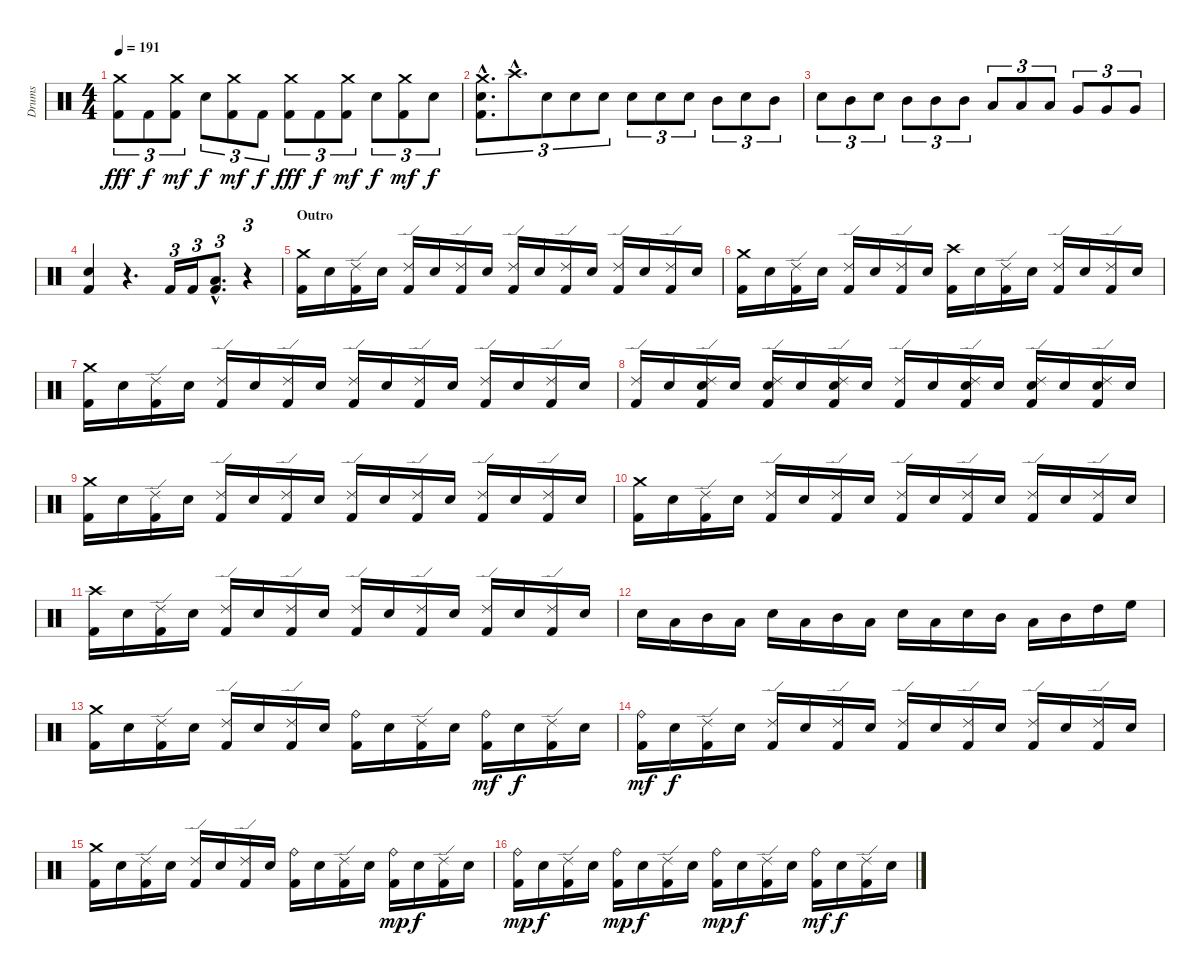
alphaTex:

\track ("Drums" "Drums") {instrument percussion}
\staff {score}
\articulation defaults
\ts (4 4)
\tempo 191
\clef neutral
\ks c
("Crash medium (hit)" "Kick (hit) 2").8{tu (3 2) dy fff} "Kick (hit) 2".8{tu (3 2) dy f} ("Crash medium (hit)" "Kick (hit) 2").8{tu (3 2) dy mf} "Electric Snare (hit)".8{tu (3 2) dy f} ("Crash medium (hit)" "Kick (hit) 2").8{tu (3 2) dy mf} "Kick (hit) 2".8{tu (3 2) dy f} ("Crash medium (hit)" "Kick (hit) 2").8{tu (3 2) dy fff} "Kick (hit) 2".8{tu (3 2) dy f} ("Crash medium (hit)" "Kick (hit) 2").8{tu (3 2) dy mf} "Electric Snare (hit)".8{tu (3 2) dy f} ("Crash medium (hit)" "Kick (hit) 2").8{tu (3 2) dy mf} "Electric Snare (hit)".8{tu (3 2) dy f} |
("Crash medium (hit)"{hac} "Electric Snare (hit)"{hac} "Kick (hit) 2"{hac}).8{d tu (3 2)} "Crash high (hit)"{hac}.8{d tu (3 2)} "Electric Snare (hit)".8{tu (3 2)} "Electric Snare (hit)".8{tu (3 2)} "Electric Snare (hit)".8{tu (3 2)} "Electric Snare (hit)".8{tu (3 2)} "Electric Snare (hit)".8{tu (3 2)} "Electric Snare (hit)".8{tu (3 2)} "Mid Tom (hit)".8{tu (3 2)} "Electric Snare (hit)".8{tu (3 2)} "Mid Tom (hit)".8{tu (3 2)} |
"Electric Snare (hit)".8{tu (3 2)} "Mid Tom (hit)".8{tu (3 2)} "Electric Snare (hit)".8{tu (3 2)} "Mid Tom (hit)".8{tu (3 2)} "Mid Tom (hit)".8{tu (3 2)} "Mid Tom (hit)".8{tu (3 2)} "Low Tom (hit)".8{tu (3 2)} "Low Tom (hit)".8{tu (3 2)} "Low Tom (hit)".8{tu (3 2)} "Very Low Tom (hit)".8{tu (3 2)} "Very Low Tom (hit)".8{tu (3 2)} "Very Low Tom (hit)".8{tu (3 2)} |
("Electric Snare (hit)" "Kick (hit) 2").4 r.4{d} "Kick (hit) 2".16{tu (3 2)} "Kick (hit) 2".16{tu (3 2)} ("Low Tom (hit)"{hac} "Kick (hit) 2"{hac}).8{d tu (3 2) bd 480} r.4{tu (3 2)} |
\section ("" "Outro")
("Crash medium (hit)" "Kick (hit) 2").16 "Electric Snare (hit)".16 ("Ride (edge) 2" "Kick (hit) 2").16 "Electric Snare (hit)".16 ("Ride (edge) 2" "Kick (hit) 2").16 "Electric Snare (hit)".16 ("Ride (edge) 2" "Kick (hit) 2").16 "Electric Snare (hit)".16 ("Ride (edge) 2" "Kick (hit) 2").16 "Electric Snare (hit)".16 ("Ride (edge) 2" "Kick (hit) 2").16 "Electric Snare (hit)".16 ("Ride (edge) 2" "Kick (hit) 2").16 "Electric Snare (hit)".16 ("Ride (edge) 2" "Kick (hit) 2").16 "Electric Snare (hit)".16 |
("Crash medium (hit)" "Kick (hit) 2").16 "Electric Snare (hit)".16 ("Ride (edge) 2" "Kick (hit) 2").16 "Electric Snare (hit)".16 ("Ride (edge) 2" "Kick (hit) 2").16 "Electric Snare (hit)".16 ("Ride (edge) 2" "Kick (hit) 2").16 "Electric Snare (hit)".16 ("Crash high (hit)" "Kick (hit) 2").16 "Electric Snare (hit)".16 ("Ride (edge) 2" "Kick (hit) 2").16 "Electric Snare (hit)".16 ("Ride (edge) 2" "Kick (hit) 2").16 "Electric Snare (hit)".16 ("Ride (edge) 2" "Kick (hit) 2").16 "Electric Snare (hit)".16 |
("Crash medium (hit)" "Kick (hit) 2").16 "Electric Snare (hit)".16 ("Ride (edge) 2" "Kick (hit) 2").16 "Electric Snare (hit)".16 ("Ride (edge) 2" "Kick (hit) 2").16 "Electric Snare (hit)".16 ("Ride (edge) 2" "Kick (hit) 2").16 "Electric Snare (hit)".16 ("Ride (edge) 2" "Kick (hit) 2").16 "Electric Snare (hit)".16 ("Ride (edge) 2" "Kick (hit) 2").16 "Electric Snare (hit)".16 ("Ride (edge) 2" "Kick (hit) 2").16 "Electric Snare (hit)".16 ("Ride (edge) 2" "Kick (hit) 2").16 "Electric Snare (hit)".16 |
("Ride (edge) 2" "Kick (hit) 2").16 "Electric Snare (hit)".16 ("Ride (edge) 2" "Electric Snare (hit)" "Kick (hit) 2").16 "Electric Snare (hit)".16 ("Ride (edge) 2" "Electric Snare (hit)" "Kick (hit) 2").16 "Electric Snare (hit)".16 ("Ride (edge) 2" "Electric Snare (hit)" "Kick (hit) 2").16 "Electric Snare (hit)".16 ("Ride (edge) 2" "Kick (hit) 2").16 "Electric Snare (hit)".16 ("Ride (edge) 2" "Electric Snare (hit)" "Kick (hit) 2").16 "Electric Snare (hit)".16 ("Ride (edge) 2" "Electric Snare (hit)" "Kick (hit) 2").16 "Electric Snare (hit)".16 ("Ride (edge) 2" "Electric Snare (hit)" "Kick (hit) 2").16 "Electric Snare (hit)".16 |
("Crash medium (hit)" "Kick (hit) 2").16 "Electric Snare (hit)".16 ("Ride (edge) 2" "Kick (hit) 2").16 "Electric Snare (hit)".16 ("Ride (edge) 2" "Kick (hit) 2").16 "Electric Snare (hit)".16 ("Ride (edge) 2" "Kick (hit) 2").16 "Electric Snare (hit)".16 ("Ride (edge) 2" "Kick (hit) 2").16 "Electric Snare (hit)".16 ("Ride (edge) 2" "Kick (hit) 2").16 "Electric Snare (hit)".16 ("Ride (edge) 2" "Kick (hit) 2").16 "Electric Snare (hit)".16 ("Ride (edge) 2" "Kick (hit) 2").16 "Electric Snare (hit)".16 |
("Crash medium (hit)" "Kick (hit) 2").16 "Electric Snare (hit)".16 ("Ride (edge) 2" "Kick (hit) 2").16 "Electric Snare (hit)".16 ("Ride (edge) 2" "Kick (hit) 2").16 "Electric Snare (hit)".16 ("Ride (edge) 2" "Kick (hit) 2").16 "Electric Snare (hit)".16 ("Ride (edge) 2" "Kick (hit) 2").16 "Electric Snare (hit)".16 ("Ride (edge) 2" "Kick (hit) 2").16 "Electric Snare (hit)".16 ("Ride (edge) 2" "Kick (hit) 2").16 "Electric Snare (hit)".16 ("Ride (edge) 2" "Kick (hit) 2").16 "Electric Snare (hit)".16 |
("Crash high (hit)" "Kick (hit) 2").16 "Electric Snare (hit)".16 ("Ride (edge) 2" "Kick (hit) 2").16 "Electric Snare (hit)".16 ("Ride (edge) 2" "Kick (hit) 2").16 "Electric Snare (hit)".16 ("Ride (edge) 2" "Kick (hit) 2").16 "Electric Snare (hit)".16 ("Ride (edge) 2" "Kick (hit) 2").16 "Electric Snare (hit)".16 ("Ride (edge) 2" "Kick (hit) 2").16 "Electric Snare (hit)".16 ("Ride (edge) 2" "Kick (hit) 2").16 "Electric Snare (hit)".16 ("Ride (edge) 2" "Kick (hit) 2").16 "Electric Snare (hit)".16 |
"Electric Snare (hit)".16 "Low Tom (hit)".16 "Mid Tom (hit)".16 "Low Tom (hit)".16 "Electric Snare (hit)".16 "Low Tom (hit)".16 "Mid Tom (hit)".16 "Low Tom (hit)".16 "Electric Snare (hit)".16 "Low Tom (hit)".16 "Electric Snare (hit)".16 "Mid Tom (hit)".16 "Low Tom (hit)".16 "Mid Tom (hit)".16 "High Tom (hit)".16 "High Floor Tom (hit)".16 |
("Crash medium (hit)" "Kick (hit) 2").16 "Electric Snare (hit)".16 ("Ride (edge) 2" "Kick (hit) 2").16 "Electric Snare (hit)".16 ("Ride (edge) 2" "Kick (hit) 2").16 "Electric Snare (hit)".16 ("Ride (edge) 2" "Kick (hit) 2").16 "Electric Snare (hit)".16 ("Ride (bell)" "Kick (hit) 2").16 "Electric Snare (hit)".16 ("Ride (edge) 2" "Kick (hit) 2").16 "Electric Snare (hit)".16 ("Ride (bell)" "Kick (hit) 2").16{dy mf} "Electric Snare (hit)".16{dy f} ("Ride (edge) 2" "Kick (hit) 2").16 "Electric Snare (hit)".16 |
("Ride (bell)" "Kick (hit) 2").16{dy mf} "Electric Snare (hit)".16{dy f} ("Ride (edge) 2" "Kick (hit) 2").16 "Electric Snare (hit)".16 ("Ride (edge) 2" "Kick (hit) 2").16 "Electric Snare (hit)".16 ("Ride (edge) 2" "Kick (hit) 2").16 "Electric Snare (hit)".16 ("Ride (edge) 2" "Kick (hit) 2").16 "Electric Snare (hit)".16 ("Ride (edge) 2" "Kick (hit) 2").16 "Electric Snare (hit)".16 ("Ride (edge) 2" "Kick (hit) 2").16 "Electric Snare (hit)".16 ("Ride (edge) 2" "Kick (hit) 2").16 "Electric Snare (hit)".16 |
("Crash medium (hit)" "Kick (hit) 2").16 "Electric Snare (hit)".16 ("Ride (edge) 2" "Kick (hit) 2").16 "Electric Snare (hit)".16 ("Ride (edge) 2" "Kick (hit) 2").16 "Electric Snare (hit)".16 ("Ride (edge) 2" "Kick (hit) 2").16 "Electric Snare (hit)".16 ("Ride (bell)" "Kick (hit) 2").16 "Electric Snare (hit)".16 ("Ride (edge) 2" "Kick (hit) 2").16 "Electric Snare (hit)".16 ("Ride (bell)" "Kick (hit) 2").16{dy mp} "Electric Snare (hit)".16{dy f} ("Ride (edge) 2" "Kick (hit) 2").16 "Electric Snare (hit)".16 |
("Ride (bell)" "Kick (hit) 2").16{dy mp} "Electric Snare (hit)".16{dy f} ("Ride (edge) 2" "Kick (hit) 2").16 "Electric Snare (hit)".16 ("Ride (bell)" "Kick (hit) 2").16{dy mp} "Electric Snare (hit)".16{dy f} ("Ride (edge) 2" "Kick (hit) 2").16 "Electric Snare (hit)".16 ("Ride (bell)" "Kick (hit) 2").16{dy mp} "Electric Snare (hit)".16{dy f} ("Ride (edge) 2" "Kick (hit) 2").16 "Electric Snare (hit)".16 ("Ride (bell)" "Kick (hit) 2").16{dy mf} "Electric Snare (hit)".16{dy f} ("Ride (edge) 2" "Kick (hit) 2").16 "Electric Snare (hit)".16
